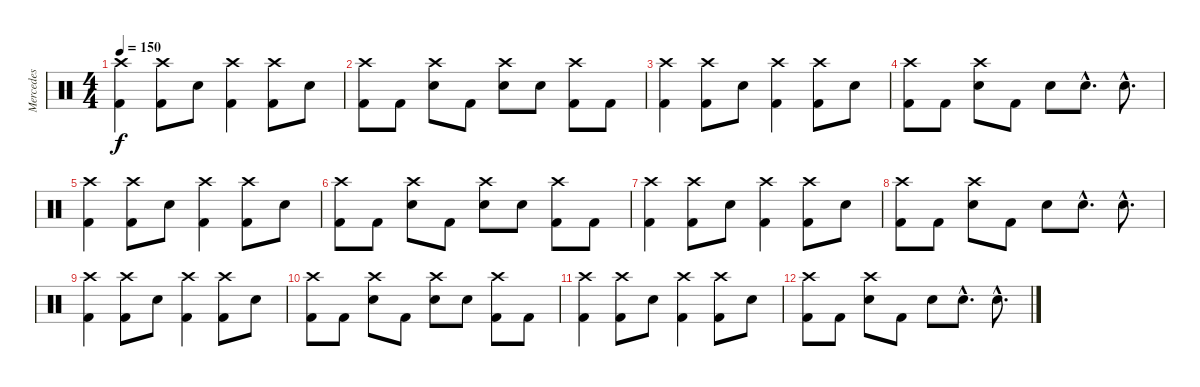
\track ("Mercedes" "Mercedes") {instrument percussion}
\staff {score}
\articulation defaults
\ts (4 4)
\tempo 150
\clef neutral
\ks c
("Kick (hit) 2" "Crash high (hit)").4{dy f} ("Kick (hit) 2" "Crash high (hit)").8 "Snare (hit) 2".8 ("Kick (hit) 2" "Crash high (hit)").4 ("Kick (hit) 2" "Crash high (hit)").8 "Snare (hit) 2".8 |
("Kick (hit) 2" "Crash high (hit)").8 "Kick (hit) 2".8 ("Snare (hit) 2" "Crash high (hit)").8 "Kick (hit) 2".8 ("Snare (hit) 2" "Crash high (hit)").8 "Snare (hit) 2".8 ("Kick (hit) 2" "Crash high (hit)").8 "Kick (hit) 2".8 |
("Kick (hit) 2" "Crash high (hit)").4 ("Kick (hit) 2" "Crash high (hit)").8 "Snare (hit) 2".8 ("Kick (hit) 2" "Crash high (hit)").4 ("Kick (hit) 2" "Crash high (hit)").8 "Snare (hit) 2".8 |
("Kick (hit) 2" "Crash high (hit)").8 "Kick (hit) 2".8 ("Snare (hit) 2" "Crash high (hit)").8 "Kick (hit) 2".8 "Snare (hit) 2".8 "Snare (hit) 2"{hac}.8{d} "Snare (hit) 2"{hac}.8{d} |
("Kick (hit) 2" "Crash high (hit)").4 ("Kick (hit) 2" "Crash high (hit)").8 "Snare (hit) 2".8 ("Kick (hit) 2" "Crash high (hit)").4 ("Kick (hit) 2" "Crash high (hit)").8 "Snare (hit) 2".8 |
("Kick (hit) 2" "Crash high (hit)").8 "Kick (hit) 2".8 ("Snare (hit) 2" "Crash high (hit)").8 "Kick (hit) 2".8 ("Snare (hit) 2" "Crash high (hit)").8 "Snare (hit) 2".8 ("Kick (hit) 2" "Crash high (hit)").8 "Kick (hit) 2".8 |
("Kick (hit) 2" "Crash high (hit)").4 ("Kick (hit) 2" "Crash high (hit)").8 "Snare (hit) 2".8 ("Kick (hit) 2" "Crash high (hit)").4 ("Kick (hit) 2" "Crash high (hit)").8 "Snare (hit) 2".8 |
("Kick (hit) 2" "Crash high (hit)").8 "Kick (hit) 2".8 ("Snare (hit) 2" "Crash high (hit)").8 "Kick (hit) 2".8 "Snare (hit) 2".8 "Snare (hit) 2"{hac}.8{d} "Snare (hit) 2"{hac}.8{d} |
("Kick (hit) 2" "Crash high (hit)").4 ("Kick (hit) 2" "Crash high (hit)").8 "Snare (hit) 2".8 ("Kick (hit) 2" "Crash high (hit)").4 ("Kick (hit) 2" "Crash high (hit)").8 "Snare (hit) 2".8 |
("Kick (hit) 2" "Crash high (hit)").8 "Kick (hit) 2".8 ("Snare (hit) 2" "Crash high (hit)").8 "Kick (hit) 2".8 ("Snare (hit) 2" "Crash high (hit)").8 "Snare (hit) 2".8 ("Kick (hit) 2" "Crash high (hit)").8 "Kick (hit) 2".8 |
("Kick (hit) 2" "Crash high (hit)").4 ("Kick (hit) 2" "Crash high (hit)").8 "Snare (hit) 2".8 ("Kick (hit) 2" "Crash high (hit)").4 ("Kick (hit) 2" "Crash high (hit)").8 "Snare (hit) 2".8 |
("Kick (hit) 2" "Crash high (hit)").8 "Kick (hit) 2".8 ("Snare (hit) 2" "Crash high (hit)").8 "Kick (hit) 2".8 "Snare (hit) 2".8 "Snare (hit) 2"{hac}.8{d} "Snare (hit) 2"{hac}.8{d}
